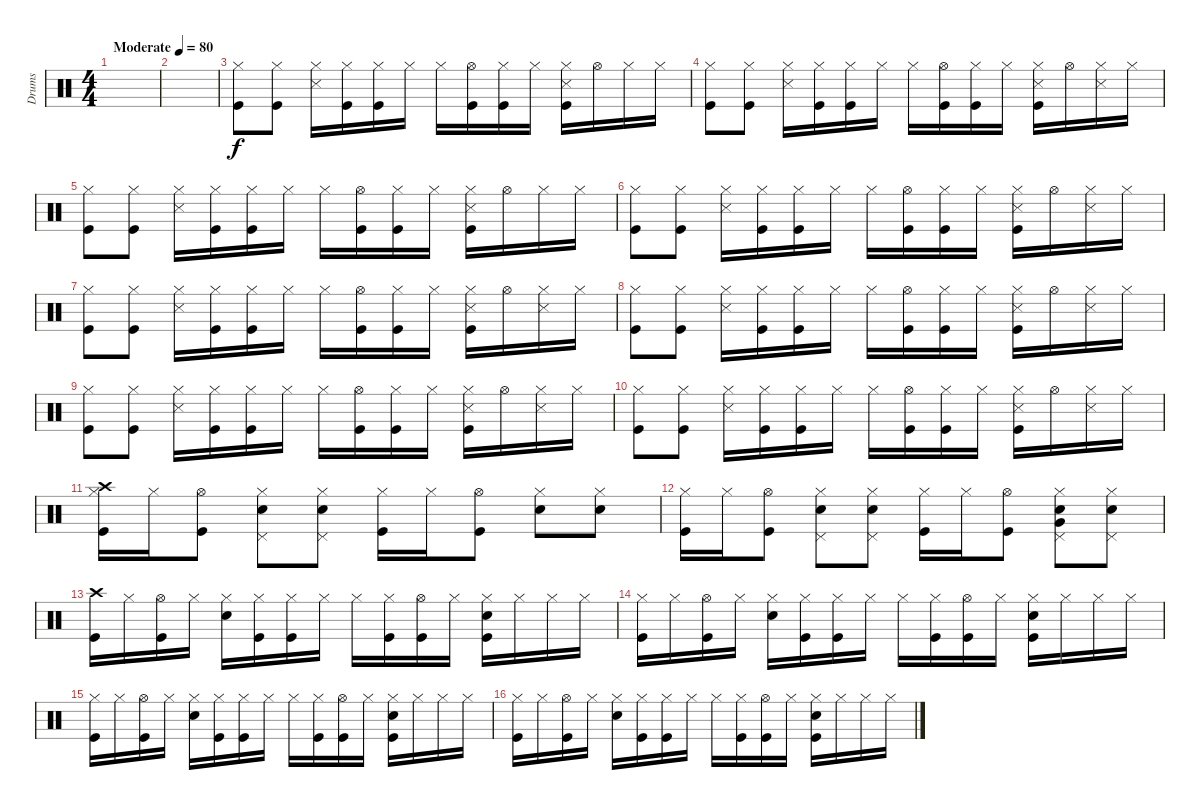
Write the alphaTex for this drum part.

\track ("Drums" "Drums") {instrument percussion}
\staff {score}
\articulation defaults
\ts (4 4)
\tempo (80 "Moderate")
\clef neutral
\ks c
|
|
("Hi-Hat (closed)" "Kick (hit)").8 ("Hi-Hat (closed)" "Kick (hit)").8 ("Hi-Hat (closed)" "Snare (side stick) 3").16 ("Hi-Hat (closed)" "Kick (hit)").16 ("Hi-Hat (closed)" "Kick (hit)").16 "Hi-Hat (closed)".16 "Hi-Hat (closed)".16 ("Kick (hit)" "Hi-Hat (open)").16 ("Hi-Hat (closed)" "Kick (hit)").16 "Hi-Hat (closed)".16 ("Hi-Hat (closed)" "Snare (side stick) 3" "Kick (hit)").16 "Hi-Hat (open)".16 "Hi-Hat (closed)".16 "Hi-Hat (closed)".16 |
("Hi-Hat (closed)" "Kick (hit)").8 ("Hi-Hat (closed)" "Kick (hit)").8 ("Hi-Hat (closed)" "Snare (side stick) 3").16 ("Hi-Hat (closed)" "Kick (hit)").16 ("Hi-Hat (closed)" "Kick (hit)").16 "Hi-Hat (closed)".16 "Hi-Hat (closed)".16 ("Kick (hit)" "Hi-Hat (open)").16 ("Hi-Hat (closed)" "Kick (hit)").16 "Hi-Hat (closed)".16 ("Hi-Hat (closed)" "Snare (side stick) 3" "Kick (hit)").16 "Hi-Hat (open)".16 ("Hi-Hat (closed)" "Snare (side stick) 3").16 "Hi-Hat (closed)".16 |
("Hi-Hat (closed)" "Kick (hit)").8 ("Hi-Hat (closed)" "Kick (hit)").8 ("Hi-Hat (closed)" "Snare (side stick) 3").16 ("Hi-Hat (closed)" "Kick (hit)").16 ("Hi-Hat (closed)" "Kick (hit)").16 "Hi-Hat (closed)".16 "Hi-Hat (closed)".16 ("Kick (hit)" "Hi-Hat (open)").16 ("Hi-Hat (closed)" "Kick (hit)").16 "Hi-Hat (closed)".16 ("Hi-Hat (closed)" "Snare (side stick) 3" "Kick (hit)").16 "Hi-Hat (open)".16 "Hi-Hat (closed)".16 "Hi-Hat (closed)".16 |
("Hi-Hat (closed)" "Kick (hit)").8 ("Hi-Hat (closed)" "Kick (hit)").8 ("Hi-Hat (closed)" "Snare (side stick) 3").16 ("Hi-Hat (closed)" "Kick (hit)").16 ("Hi-Hat (closed)" "Kick (hit)").16 "Hi-Hat (closed)".16 "Hi-Hat (closed)".16 ("Kick (hit)" "Hi-Hat (open)").16 ("Hi-Hat (closed)" "Kick (hit)").16 "Hi-Hat (closed)".16 ("Hi-Hat (closed)" "Snare (side stick) 3" "Kick (hit)").16 "Hi-Hat (open)".16 ("Hi-Hat (closed)" "Snare (side stick) 3").16 "Hi-Hat (closed)".16 |
("Hi-Hat (closed)" "Kick (hit)").8 ("Hi-Hat (closed)" "Kick (hit)").8 ("Hi-Hat (closed)" "Snare (side stick) 3").16 ("Hi-Hat (closed)" "Kick (hit)").16 ("Hi-Hat (closed)" "Kick (hit)").16 "Hi-Hat (closed)".16 "Hi-Hat (closed)".16 ("Kick (hit)" "Hi-Hat (open)").16 ("Hi-Hat (closed)" "Kick (hit)").16 "Hi-Hat (closed)".16 ("Hi-Hat (closed)" "Snare (side stick) 3" "Kick (hit)").16 "Hi-Hat (open)".16 ("Hi-Hat (closed)" "Snare (side stick) 3").16 "Hi-Hat (closed)".16 |
("Hi-Hat (closed)" "Kick (hit)").8 ("Hi-Hat (closed)" "Kick (hit)").8 ("Hi-Hat (closed)" "Snare (side stick) 3").16 ("Hi-Hat (closed)" "Kick (hit)").16 ("Hi-Hat (closed)" "Kick (hit)").16 "Hi-Hat (closed)".16 "Hi-Hat (closed)".16 ("Kick (hit)" "Hi-Hat (open)").16 ("Hi-Hat (closed)" "Kick (hit)").16 "Hi-Hat (closed)".16 ("Hi-Hat (closed)" "Snare (side stick) 3" "Kick (hit)").16 "Hi-Hat (open)".16 ("Hi-Hat (closed)" "Snare (side stick) 3").16 "Hi-Hat (closed)".16 |
("Hi-Hat (closed)" "Kick (hit)").8 ("Hi-Hat (closed)" "Kick (hit)").8 ("Hi-Hat (closed)" "Snare (side stick) 3").16 ("Hi-Hat (closed)" "Kick (hit)").16 ("Hi-Hat (closed)" "Kick (hit)").16 "Hi-Hat (closed)".16 "Hi-Hat (closed)".16 ("Kick (hit)" "Hi-Hat (open)").16 ("Hi-Hat (closed)" "Kick (hit)").16 "Hi-Hat (closed)".16 ("Hi-Hat (closed)" "Snare (side stick) 3" "Kick (hit)").16 "Hi-Hat (open)".16 ("Hi-Hat (closed)" "Snare (side stick) 3").16 "Hi-Hat (closed)".16 |
("Hi-Hat (closed)" "Kick (hit)").8 ("Hi-Hat (closed)" "Kick (hit)").8 ("Hi-Hat (closed)" "Snare (side stick) 3").16 ("Hi-Hat (closed)" "Kick (hit)").16 ("Hi-Hat (closed)" "Kick (hit)").16 "Hi-Hat (closed)".16 "Hi-Hat (closed)".16 ("Kick (hit)" "Hi-Hat (open)").16 ("Hi-Hat (closed)" "Kick (hit)").16 "Hi-Hat (closed)".16 ("Hi-Hat (closed)" "Snare (side stick) 3" "Kick (hit)").16 "Hi-Hat (open)".16 ("Hi-Hat (closed)" "Snare (side stick) 3").16 "Hi-Hat (closed)".16 |
("Hi-Hat (closed)" "Crash high (hit)" "Kick (hit)").16 "Hi-Hat (closed)".16 ("Hi-Hat (open)" "Kick (hit)").8 ("Snare (hit) 2" "Pedal Hi-Hat (hit)" "Hi-Hat (closed)").8 ("Snare (hit) 2" "Pedal Hi-Hat (hit)" "Hi-Hat (closed)").8 ("Hi-Hat (closed)" "Kick (hit)").16 "Hi-Hat (closed)".16 ("Hi-Hat (open)" "Kick (hit)").8 ("Snare (hit) 2" "Hi-Hat (closed)").8 ("Snare (hit) 2" "Hi-Hat (closed)").8 |
("Hi-Hat (closed)" "Kick (hit)").16 "Hi-Hat (closed)".16 ("Hi-Hat (open)" "Kick (hit)").8 ("Snare (hit) 2" "Pedal Hi-Hat (hit)" "Hi-Hat (closed)").8 ("Snare (hit) 2" "Pedal Hi-Hat (hit)" "Hi-Hat (closed)").8 ("Hi-Hat (closed)" "Kick (hit)").16 "Hi-Hat (closed)".16 ("Hi-Hat (open)" "Kick (hit)").8 ("Snare (hit) 2" "Pedal Hi-Hat (hit)" "Very Low Tom (hit)" "Hi-Hat (closed)").8 ("Snare (hit) 2" "Pedal Hi-Hat (hit)" "Hi-Hat (closed)").8 |
("Crash high (hit)" "Kick (hit)").16 "Hi-Hat (closed)".16 ("Hi-Hat (open)" "Kick (hit)").16 "Hi-Hat (closed)".16 ("Hi-Hat (closed)" "Snare (hit) 2").16 ("Hi-Hat (closed)" "Kick (hit)").16 ("Hi-Hat (closed)" "Kick (hit)").16 "Hi-Hat (closed)".16 "Hi-Hat (closed)".16 ("Hi-Hat (closed)" "Kick (hit)").16 ("Hi-Hat (open)" "Kick (hit)").16 "Hi-Hat (closed)".16 ("Hi-Hat (closed)" "Snare (hit) 2" "Kick (hit)").16 "Hi-Hat (closed)".16 "Hi-Hat (closed)".16 "Hi-Hat (closed)".16 |
("Hi-Hat (closed)" "Kick (hit)").16 "Hi-Hat (closed)".16 ("Hi-Hat (open)" "Kick (hit)").16 "Hi-Hat (closed)".16 ("Hi-Hat (closed)" "Snare (hit) 2").16 ("Hi-Hat (closed)" "Kick (hit)").16 ("Hi-Hat (closed)" "Kick (hit)").16 "Hi-Hat (closed)".16 "Hi-Hat (closed)".16 ("Hi-Hat (closed)" "Kick (hit)").16 ("Hi-Hat (open)" "Kick (hit)").16 "Hi-Hat (closed)".16 ("Hi-Hat (closed)" "Snare (hit) 2" "Kick (hit)").16 "Hi-Hat (closed)".16 "Hi-Hat (closed)".16 "Hi-Hat (closed)".16 |
("Hi-Hat (closed)" "Kick (hit)").16 "Hi-Hat (closed)".16 ("Hi-Hat (open)" "Kick (hit)").16 "Hi-Hat (closed)".16 ("Hi-Hat (closed)" "Snare (hit) 2").16 ("Hi-Hat (closed)" "Kick (hit)").16 ("Hi-Hat (closed)" "Kick (hit)").16 "Hi-Hat (closed)".16 "Hi-Hat (closed)".16 ("Hi-Hat (closed)" "Kick (hit)").16 ("Hi-Hat (open)" "Kick (hit)").16 "Hi-Hat (closed)".16 ("Hi-Hat (closed)" "Snare (hit) 2" "Kick (hit)").16 "Hi-Hat (closed)".16 "Hi-Hat (closed)".16 "Hi-Hat (closed)".16 |
("Hi-Hat (closed)" "Kick (hit)").16 "Hi-Hat (closed)".16 ("Hi-Hat (open)" "Kick (hit)").16 "Hi-Hat (closed)".16 ("Hi-Hat (closed)" "Snare (hit) 2").16 ("Hi-Hat (closed)" "Kick (hit)").16 ("Hi-Hat (closed)" "Kick (hit)").16 "Hi-Hat (closed)".16 "Hi-Hat (closed)".16 ("Hi-Hat (closed)" "Kick (hit)").16 ("Hi-Hat (open)" "Kick (hit)").16 "Hi-Hat (closed)".16 ("Hi-Hat (closed)" "Snare (hit) 2" "Kick (hit)").16 "Hi-Hat (closed)".16 "Hi-Hat (closed)".16 "Hi-Hat (closed)".16
